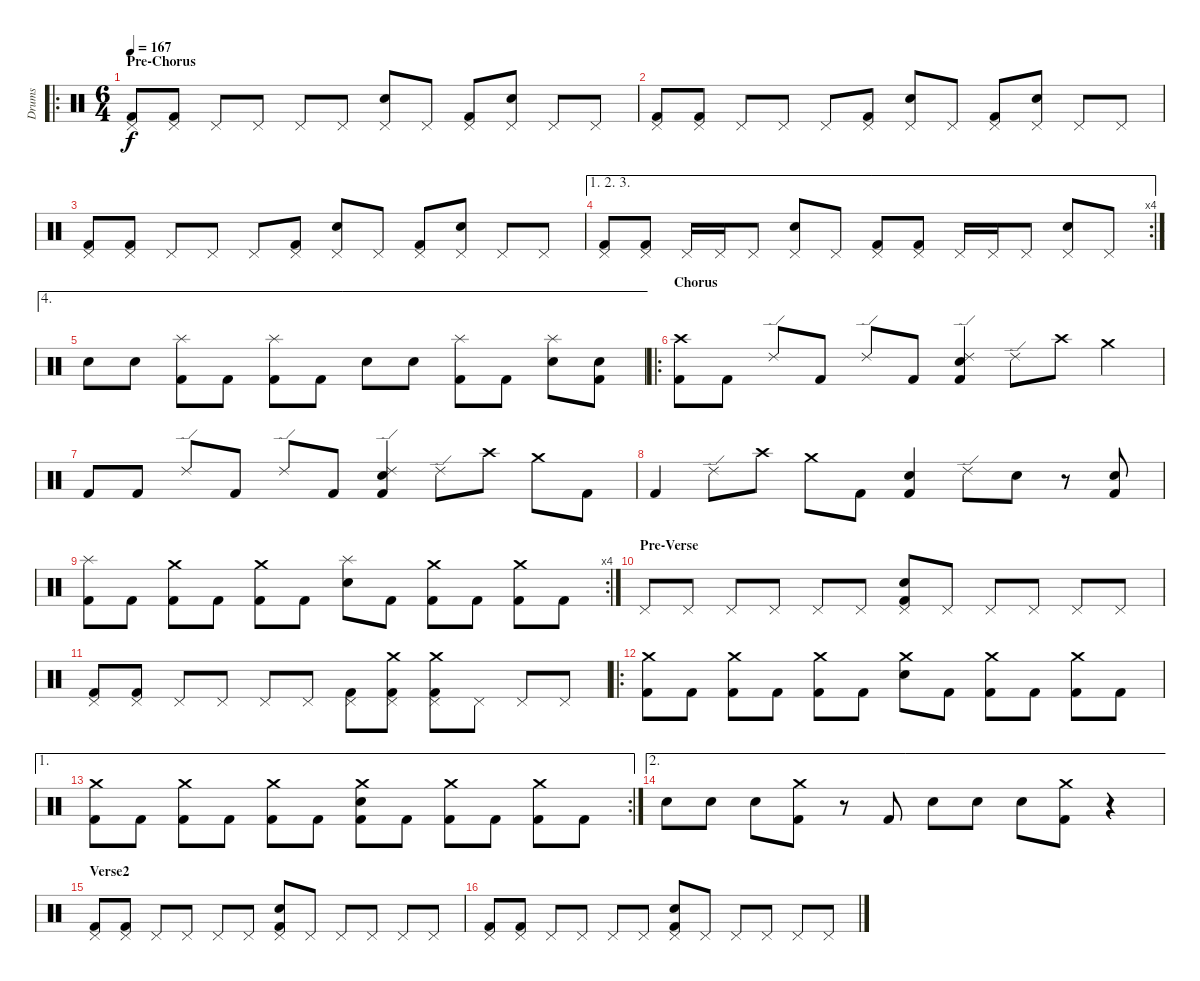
\track ("Drums" "Drums") {instrument percussion}
\staff {score}
\articulation defaults
\ro
\ts (6 4)
\section ("" "Pre-Chorus")
\tempo 167
\clef neutral
\ks c
("Pedal Hi-Hat (hit)" "Kick (hit) 2").8{dy f} ("Pedal Hi-Hat (hit)" "Kick (hit) 2").8 "Pedal Hi-Hat (hit)".8 "Pedal Hi-Hat (hit)".8 "Pedal Hi-Hat (hit)".8 "Pedal Hi-Hat (hit)".8 ("Pedal Hi-Hat (hit)" "Electric Snare (hit)").8 "Pedal Hi-Hat (hit)".8 ("Pedal Hi-Hat (hit)" "Kick (hit) 2").8 ("Pedal Hi-Hat (hit)" "Electric Snare (hit)").8 "Pedal Hi-Hat (hit)".8 "Pedal Hi-Hat (hit)".8 |
("Pedal Hi-Hat (hit)" "Kick (hit) 2").8 ("Pedal Hi-Hat (hit)" "Kick (hit) 2").8 "Pedal Hi-Hat (hit)".8 "Pedal Hi-Hat (hit)".8 "Pedal Hi-Hat (hit)".8 ("Pedal Hi-Hat (hit)" "Kick (hit) 2").8 ("Pedal Hi-Hat (hit)" "Electric Snare (hit)").8 "Pedal Hi-Hat (hit)".8 ("Pedal Hi-Hat (hit)" "Kick (hit) 2").8 ("Pedal Hi-Hat (hit)" "Electric Snare (hit)").8 "Pedal Hi-Hat (hit)".8 "Pedal Hi-Hat (hit)".8 |
("Pedal Hi-Hat (hit)" "Kick (hit) 2").8 ("Pedal Hi-Hat (hit)" "Kick (hit) 2").8 "Pedal Hi-Hat (hit)".8 "Pedal Hi-Hat (hit)".8 "Pedal Hi-Hat (hit)".8 ("Pedal Hi-Hat (hit)" "Kick (hit) 2").8 ("Pedal Hi-Hat (hit)" "Electric Snare (hit)").8 "Pedal Hi-Hat (hit)".8 ("Pedal Hi-Hat (hit)" "Kick (hit) 2").8 ("Pedal Hi-Hat (hit)" "Electric Snare (hit)").8 "Pedal Hi-Hat (hit)".8 "Pedal Hi-Hat (hit)".8 |
\ae (1 2 3)
\rc 4
("Pedal Hi-Hat (hit)" "Kick (hit) 2").8 ("Pedal Hi-Hat (hit)" "Kick (hit) 2").8 "Pedal Hi-Hat (hit)".16 "Pedal Hi-Hat (hit)".16 "Pedal Hi-Hat (hit)".8 ("Pedal Hi-Hat (hit)" "Electric Snare (hit)").8 "Pedal Hi-Hat (hit)".8 ("Pedal Hi-Hat (hit)" "Kick (hit) 2").8 ("Pedal Hi-Hat (hit)" "Kick (hit) 2").8 "Pedal Hi-Hat (hit)".16 "Pedal Hi-Hat (hit)".16 "Pedal Hi-Hat (hit)".8 ("Pedal Hi-Hat (hit)" "Electric Snare (hit)").8 "Pedal Hi-Hat (hit)".8 |
\ae 4 "Electric Snare (hit)".8 "Electric Snare (hit)".8
("Splash (hit)" "Kick (hit) 2").8 "Kick (hit) 2".8 ("Splash (hit)" "Kick (hit) 2").8 "Kick (hit) 2".8 "Electric Snare (hit)".8 "Electric Snare (hit)".8 ("Splash (hit)" "Kick (hit) 2").8 "Kick (hit) 2".8 ("Splash (hit)" "Electric Snare (hit)").8 ("Electric Snare (hit)" "Kick (hit) 2").8 |
\ro
\section ("" "Chorus")
("Crash high (hit)" "Kick (hit) 2").8 "Kick (hit) 2".8 "Ride (edge) 2".8 "Kick (hit) 2".8 "Ride (edge) 2".8 "Kick (hit) 2".8 ("Ride (edge) 2" "Electric Snare (hit)" "Kick (hit) 2").4 "Ride (edge) 2".8 "Crash high (hit)".8 "Crash medium (hit)".4 |
"Kick (hit) 2".8 "Kick (hit) 2".8 "Ride (edge) 2".8 "Kick (hit) 2".8 "Ride (edge) 2".8 "Kick (hit) 2".8 ("Ride (edge) 2" "Electric Snare (hit)" "Kick (hit) 2").4 "Ride (edge) 2".8 "Crash high (hit)".8 "Crash medium (hit)".8 "Kick (hit) 2".8 |
"Kick (hit) 2".4 "Ride (edge) 2".8 "Crash high (hit)".8 "Crash medium (hit)".8 "Kick (hit) 2".8 ("Electric Snare (hit)" "Kick (hit) 2").4 "Ride (edge) 2".8 "Electric Snare (hit)".8 r.8 ("Electric Snare (hit)" "Kick (hit) 2").8 |
\rc 4
("Splash (hit)" "Kick (hit) 2").8 "Kick (hit) 2".8 ("Crash medium (hit)" "Kick (hit) 2").8 "Kick (hit) 2".8 ("Crash medium (hit)" "Kick (hit) 2").8 "Kick (hit) 2".8 ("Splash (hit)" "Electric Snare (hit)").8 "Kick (hit) 2".8 ("Crash medium (hit)" "Kick (hit) 2").8 "Kick (hit) 2".8 ("Crash medium (hit)" "Kick (hit) 2").8 "Kick (hit) 2".8 |
\section ("" "Pre-Verse")
"Pedal Hi-Hat (hit)".8 "Pedal Hi-Hat (hit)".8 "Pedal Hi-Hat (hit)".8 "Pedal Hi-Hat (hit)".8 "Pedal Hi-Hat (hit)".8 "Pedal Hi-Hat (hit)".8 ("Pedal Hi-Hat (hit)" "Electric Snare (hit)" "Kick (hit) 2").8 "Pedal Hi-Hat (hit)".8 "Pedal Hi-Hat (hit)".8 "Pedal Hi-Hat (hit)".8 "Pedal Hi-Hat (hit)".8 "Pedal Hi-Hat (hit)".8 |
("Pedal Hi-Hat (hit)" "Kick (hit) 2").8 ("Pedal Hi-Hat (hit)" "Kick (hit) 2").8 "Pedal Hi-Hat (hit)".8 "Pedal Hi-Hat (hit)".8 "Pedal Hi-Hat (hit)".8 "Pedal Hi-Hat (hit)".8 ("Pedal Hi-Hat (hit)" "Kick (hit) 2").8 ("Crash medium (hit)" "Pedal Hi-Hat (hit)" "Kick (hit) 2").8 ("Crash medium (hit)" "Pedal Hi-Hat (hit)" "Kick (hit) 2").8 "Pedal Hi-Hat (hit)".8 "Pedal Hi-Hat (hit)".8 "Pedal Hi-Hat (hit)".8 |
\ro
("Crash medium (hit)" "Kick (hit) 2").8 "Kick (hit) 2".8 ("Crash medium (hit)" "Kick (hit) 2").8 "Kick (hit) 2".8 ("Crash medium (hit)" "Kick (hit) 2").8 "Kick (hit) 2".8 ("Crash medium (hit)" "Electric Snare (hit)").8 "Kick (hit) 2".8 ("Crash medium (hit)" "Kick (hit) 2").8 "Kick (hit) 2".8 ("Crash medium (hit)" "Kick (hit) 2").8 "Kick (hit) 2".8 |
\ae 1
\rc 2
("Crash medium (hit)" "Kick (hit) 2").8 "Kick (hit) 2".8 ("Crash medium (hit)" "Kick (hit) 2").8 "Kick (hit) 2".8 ("Crash medium (hit)" "Kick (hit) 2").8 "Kick (hit) 2".8 ("Crash medium (hit)" "Electric Snare (hit)" "Kick (hit) 2").8 "Kick (hit) 2".8 ("Crash medium (hit)" "Kick (hit) 2").8 "Kick (hit) 2".8 ("Crash medium (hit)" "Kick (hit) 2").8 "Kick (hit) 2".8 |
\ae 2 "Electric Snare (hit)".8 "Electric Snare (hit)".8 "Electric Snare (hit)".8
("Crash medium (hit)" "Kick (hit) 2").8 r.8 "Kick (hit) 2".8 "Electric Snare (hit)".8 "Electric Snare (hit)".8 "Electric Snare (hit)".8 ("Crash medium (hit)" "Kick (hit) 2").8 r.4 |
\section ("" "Verse2")
("Pedal Hi-Hat (hit)" "Kick (hit) 2").8 ("Pedal Hi-Hat (hit)" "Kick (hit) 2").8 "Pedal Hi-Hat (hit)".8 "Pedal Hi-Hat (hit)".8 "Pedal Hi-Hat (hit)".8 "Pedal Hi-Hat (hit)".8 ("Pedal Hi-Hat (hit)" "Electric Snare (hit)" "Kick (hit) 2").8 "Pedal Hi-Hat (hit)".8 "Pedal Hi-Hat (hit)".8 "Pedal Hi-Hat (hit)".8 "Pedal Hi-Hat (hit)".8 "Pedal Hi-Hat (hit)".8 |
("Pedal Hi-Hat (hit)" "Kick (hit) 2").8 ("Pedal Hi-Hat (hit)" "Kick (hit) 2").8 "Pedal Hi-Hat (hit)".8 "Pedal Hi-Hat (hit)".8 "Pedal Hi-Hat (hit)".8 "Pedal Hi-Hat (hit)".8 ("Pedal Hi-Hat (hit)" "Electric Snare (hit)" "Kick (hit) 2").8 "Pedal Hi-Hat (hit)".8 "Pedal Hi-Hat (hit)".8 "Pedal Hi-Hat (hit)".8 "Pedal Hi-Hat (hit)".8 "Pedal Hi-Hat (hit)".8
